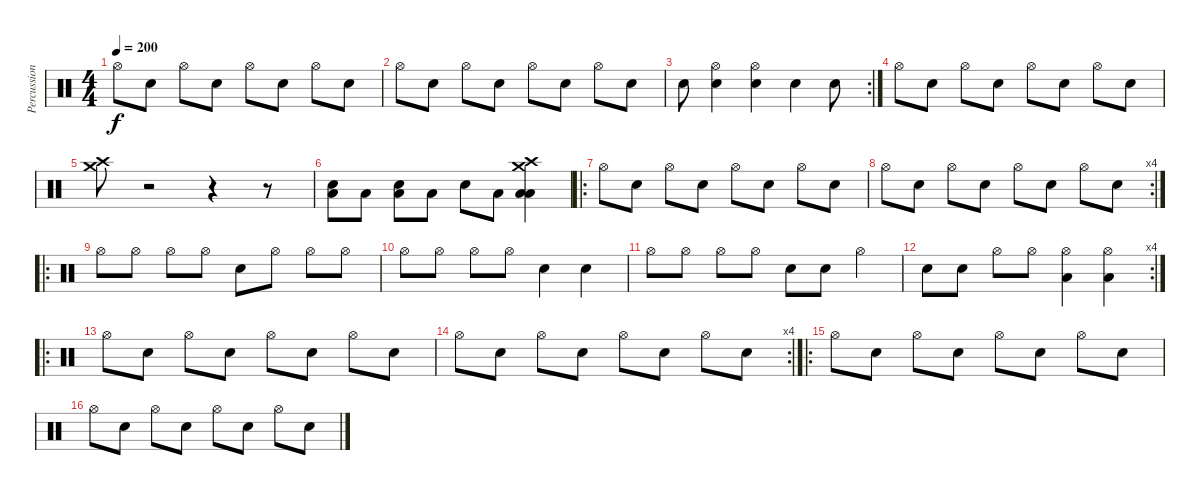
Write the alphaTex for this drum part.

\track ("Percussion" "Percussion") {instrument percussion}
\staff {score}
\articulation defaults
\ts (4 4)
\tempo 200
\clef neutral
\ks c "Hi-Hat (open)".8{dy f} "Snare (hit) 2".8 "Hi-Hat (open)".8 "Snare (hit) 2".8 "Hi-Hat (open)".8 "Snare (hit) 2".8 "Hi-Hat (open)".8 "Snare (hit) 2".8
|
"Hi-Hat (open)".8 "Snare (hit) 2".8 "Hi-Hat (open)".8 "Snare (hit) 2".8 "Hi-Hat (open)".8 "Snare (hit) 2".8 "Hi-Hat (open)".8 "Snare (hit) 2".8 |
\rc 2 "Electric Snare (hit)".8
("Hi-Hat (open)" "Snare (hit) 2").4 ("Hi-Hat (open)" "Snare (hit) 2").4 "Snare (hit) 2".4 "Snare (hit) 2".8 |
"Hi-Hat (open)".8 "Snare (hit) 2".8 "Hi-Hat (open)".8 "Snare (hit) 2".8 "Hi-Hat (open)".8 "Snare (hit) 2".8 "Hi-Hat (open)".8 "Snare (hit) 2".8 |
("Crash medium (hit)" "Crash high (hit)").8 r.2 r.4 r.8 |
("Snare (hit) 2" "Low Tom (hit)").8 "Low Tom (hit)".8 ("Electric Snare (hit)" "Low Tom (hit)").8 "Low Tom (hit)".8 "Snare (hit) 2".8 "Low Tom (hit)".8 ("Crash high (hit)" "Low Floor Tom (hit)" "Low Tom (hit)" "Crash medium (hit)").4 |
\ro "Hi-Hat (open)".8 "Snare (hit) 2".8 "Hi-Hat (open)".8 "Snare (hit) 2".8 "Hi-Hat (open)".8 "Snare (hit) 2".8 "Hi-Hat (open)".8 "Snare (hit) 2".8
|
\rc 4 "Hi-Hat (open)".8 "Snare (hit) 2".8 "Hi-Hat (open)".8 "Snare (hit) 2".8 "Hi-Hat (open)".8 "Snare (hit) 2".8 "Hi-Hat (open)".8 "Snare (hit) 2".8
|
\ro "Hi-Hat (open)".8 "Hi-Hat (open)".8 "Hi-Hat (open)".8 "Hi-Hat (open)".8 "Electric Snare (hit)".8 "Hi-Hat (open)".8 "Hi-Hat (open)".8 "Hi-Hat (open)".8
|
"Hi-Hat (open)".8 "Hi-Hat (open)".8 "Hi-Hat (open)".8 "Hi-Hat (open)".8 "Electric Snare (hit)".4 "Electric Snare (hit)".4 |
"Hi-Hat (open)".8 "Hi-Hat (open)".8 "Hi-Hat (open)".8 "Hi-Hat (open)".8 "Snare (hit) 2".8 "Electric Snare (hit)".8 "Hi-Hat (open)".4 |
\rc 4 "Electric Snare (hit)".8 "Snare (hit) 2".8 "Hi-Hat (open)".8 "Hi-Hat (open)".8
("Hi-Hat (open)" "Low Floor Tom (hit)").4 ("Hi-Hat (open)" "Low Floor Tom (hit)").4 |
\ro "Hi-Hat (open)".8 "Snare (hit) 2".8 "Hi-Hat (open)".8 "Snare (hit) 2".8 "Hi-Hat (open)".8 "Snare (hit) 2".8 "Hi-Hat (open)".8 "Snare (hit) 2".8
|
\rc 4 "Hi-Hat (open)".8 "Snare (hit) 2".8 "Hi-Hat (open)".8 "Snare (hit) 2".8 "Hi-Hat (open)".8 "Snare (hit) 2".8 "Hi-Hat (open)".8 "Snare (hit) 2".8
|
\ro "Hi-Hat (open)".8 "Snare (hit) 2".8 "Hi-Hat (open)".8 "Snare (hit) 2".8 "Hi-Hat (open)".8 "Snare (hit) 2".8 "Hi-Hat (open)".8 "Snare (hit) 2".8
|
"Hi-Hat (open)".8 "Snare (hit) 2".8 "Hi-Hat (open)".8 "Snare (hit) 2".8 "Hi-Hat (open)".8 "Snare (hit) 2".8 "Hi-Hat (open)".8 "Snare (hit) 2".8
